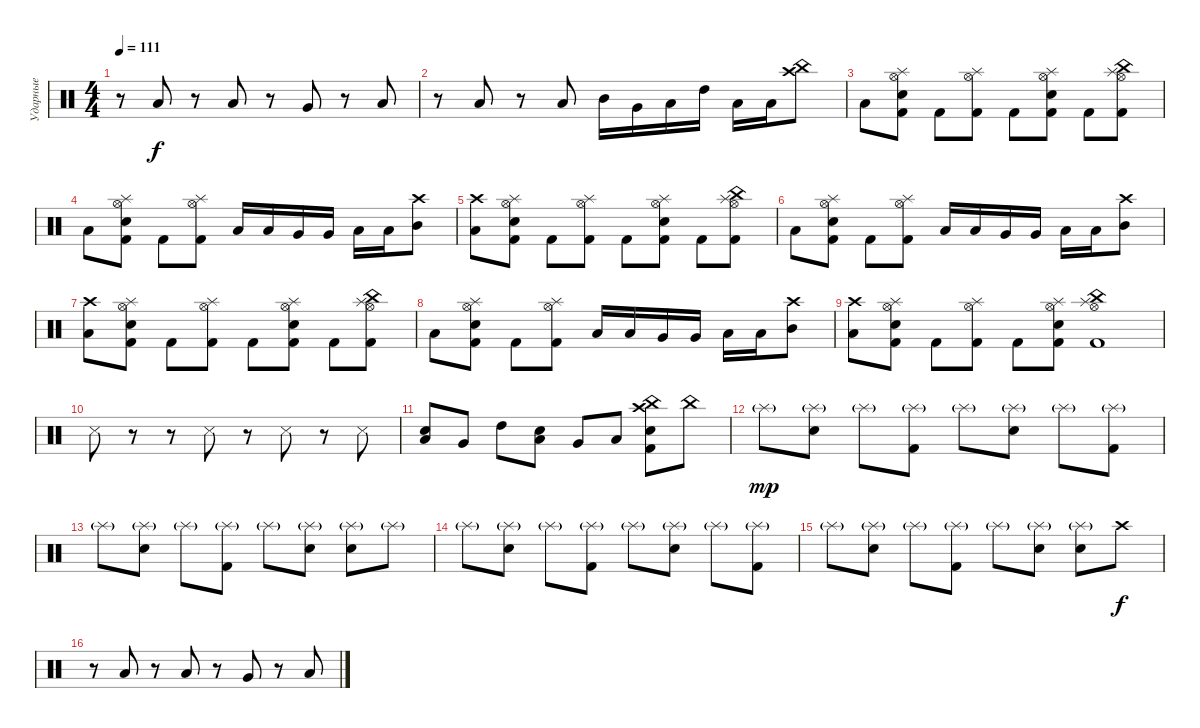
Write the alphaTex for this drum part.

\track ("Ударные" "Ударные") {instrument percussion}
\staff {score}
\articulation defaults
\ts (4 4)
\tempo 111
\clef neutral
\ks c
r.8{dy f} "Low Floor Tom (hit)".8 r.8 "Low Tom (hit)".8 r.8 "Very Low Tom (hit)".8 r.8 "Low Tom (hit)".8 |
r.8 "Low Floor Tom (hit)".8 r.8 "Low Tom (hit)".8 "Mid Tom (hit)".16 "Very Low Tom (hit)".16 "Low Floor Tom (hit)".16 "High Tom (hit)".16 "Low Tom (hit)".16 "Low Floor Tom (hit)".16 ("Crash high (hit)" "China (hit)").8 |
"Low Tom (hit)".8 ("Kick (hit) 2" "Electric Snare (hit)" "Hi-Hat (open)" "Splash (hit)").8 "Kick (hit) 2".8 ("Kick (hit) 2" "Hi-Hat (open)" "Splash (hit)").8 "Kick (hit) 2".8 ("Kick (hit) 2" "Electric Snare (hit)" "Hi-Hat (open)" "Splash (hit)").8 "Kick (hit) 2".8 ("Kick (hit) 2" "China (hit)" "Hi-Hat (open)" "Splash (hit)").8 |
"Low Tom (hit)".8 ("Kick (hit) 2" "Electric Snare (hit)" "Hi-Hat (open)" "Splash (hit)").8 "Kick (hit) 2".8 ("Kick (hit) 2" "Hi-Hat (open)" "Splash (hit)").8 "Low Tom (hit)".16 "Low Tom (hit)".16 "Very Low Tom (hit)".16 "Very Low Tom (hit)".16 "Low Floor Tom (hit)".16 "Low Floor Tom (hit)".16 ("Mid Tom (hit)" "Crash high (hit)").8 |
("Low Tom (hit)" "Crash high (hit)").8 ("Kick (hit) 2" "Electric Snare (hit)" "Hi-Hat (open)" "Splash (hit)").8 "Kick (hit) 2".8 ("Kick (hit) 2" "Hi-Hat (open)" "Splash (hit)").8 "Kick (hit) 2".8 ("Kick (hit) 2" "Electric Snare (hit)" "Hi-Hat (open)" "Splash (hit)").8 "Kick (hit) 2".8 ("Kick (hit) 2" "China (hit)" "Hi-Hat (open)" "Splash (hit)").8 |
"Low Tom (hit)".8 ("Kick (hit) 2" "Electric Snare (hit)" "Hi-Hat (open)" "Splash (hit)").8 "Kick (hit) 2".8 ("Kick (hit) 2" "Hi-Hat (open)" "Splash (hit)").8 "Low Tom (hit)".16 "Low Tom (hit)".16 "Very Low Tom (hit)".16 "Very Low Tom (hit)".16 "Low Floor Tom (hit)".16 "Low Floor Tom (hit)".16 ("Mid Tom (hit)" "Crash high (hit)").8 |
("Low Tom (hit)" "Crash high (hit)").8 ("Kick (hit) 2" "Electric Snare (hit)" "Hi-Hat (open)" "Splash (hit)").8 "Kick (hit) 2".8 ("Kick (hit) 2" "Hi-Hat (open)" "Splash (hit)").8 "Kick (hit) 2".8 ("Kick (hit) 2" "Electric Snare (hit)" "Hi-Hat (open)" "Splash (hit)").8 "Kick (hit) 2".8 ("Kick (hit) 2" "China (hit)" "Hi-Hat (open)" "Splash (hit)").8 |
"Low Tom (hit)".8 ("Kick (hit) 2" "Electric Snare (hit)" "Hi-Hat (open)" "Splash (hit)").8 "Kick (hit) 2".8 ("Kick (hit) 2" "Hi-Hat (open)" "Splash (hit)").8 "Low Tom (hit)".16 "Low Tom (hit)".16 "Very Low Tom (hit)".16 "Very Low Tom (hit)".16 "Low Floor Tom (hit)".16 "Low Floor Tom (hit)".16 ("Mid Tom (hit)" "Crash high (hit)").8 |
("Low Tom (hit)" "Crash high (hit)").8 ("Kick (hit) 2" "Electric Snare (hit)" "Hi-Hat (open)" "Splash (hit)").8 "Kick (hit) 2".8 ("Kick (hit) 2" "Hi-Hat (open)" "Splash (hit)").8 "Kick (hit) 2".8 ("Kick (hit) 2" "Electric Snare (hit)" "Hi-Hat (open)" "Splash (hit)").8 ("Kick (hit) 2" "China (hit)" "Hi-Hat (open)" "Splash (hit)").1 |
"Snare (side stick) 3".8 r.8 r.8 "Snare (side stick) 3".8 r.8 "Snare (side stick) 3".8 r.8 "Snare (side stick) 3".8 |
("Low Floor Tom (hit)" "Electric Snare (hit)").8 "Very Low Tom (hit)".8 "High Tom (hit)".8 ("Low Floor Tom (hit)" "Electric Snare (hit)").8 "Very Low Tom (hit)".8 "Low Floor Tom (hit)".8 ("Kick (hit) 2" "China (hit)" "Crash high (hit)" "Electric Snare (hit)").8 "China (hit)".8 |
"Splash (hit)"{g}.8{dy mp} ("Electric Snare (hit)" "Splash (hit)"{g}).8 "Splash (hit)"{g}.8 ("Splash (hit)"{g} "Kick (hit) 2").8 "Splash (hit)"{g}.8 ("Electric Snare (hit)" "Splash (hit)"{g}).8 "Splash (hit)"{g}.8 ("Splash (hit)"{g} "Kick (hit) 2").8 |
"Splash (hit)"{g}.8 ("Electric Snare (hit)" "Splash (hit)"{g}).8 "Splash (hit)"{g}.8 ("Splash (hit)"{g} "Kick (hit) 2").8 "Splash (hit)"{g}.8 ("Electric Snare (hit)" "Splash (hit)"{g}).8 ("Snare (hit) 2" "Splash (hit)"{g}).8 "Splash (hit)"{g}.8 |
"Splash (hit)"{g}.8 ("Electric Snare (hit)" "Splash (hit)"{g}).8 "Splash (hit)"{g}.8 ("Splash (hit)"{g} "Kick (hit) 2").8 "Splash (hit)"{g}.8 ("Electric Snare (hit)" "Splash (hit)"{g}).8 "Splash (hit)"{g}.8 ("Splash (hit)"{g} "Kick (hit) 2").8 |
"Splash (hit)"{g}.8 ("Electric Snare (hit)" "Splash (hit)"{g}).8 "Splash (hit)"{g}.8 ("Splash (hit)"{g} "Kick (hit) 2").8 "Splash (hit)"{g}.8 ("Electric Snare (hit)" "Splash (hit)"{g}).8 ("Snare (hit) 2" "Splash (hit)"{g}).8 "Crash high (hit)".8{dy f} |
r.8 "Low Floor Tom (hit)".8 r.8 "Low Tom (hit)".8 r.8 "Very Low Tom (hit)".8 r.8 "Low Tom (hit)".8
